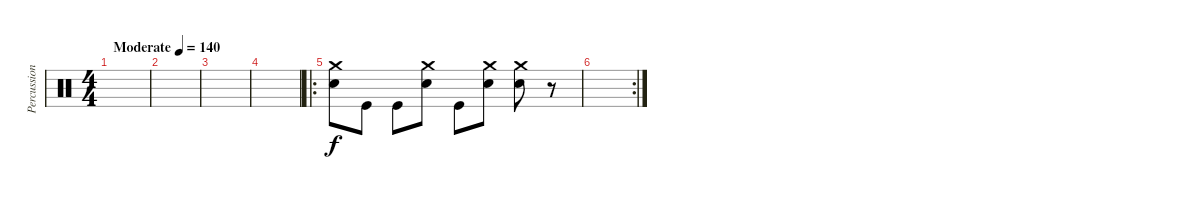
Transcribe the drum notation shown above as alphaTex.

\track ("Percussion" "Percussion") {instrument percussion}
\staff {score}
\articulation defaults
\ts (4 4)
\tempo (140 "Moderate")
\clef neutral
\ks c
|
|
|
|
\ro
("Crash medium (hit)" "Snare (hit) 2").8 "Kick (hit)".8 "Kick (hit)".8 ("Crash medium (hit)" "Snare (hit) 2").8 "Kick (hit)".8 ("Crash medium (hit)" "Snare (hit) 2").8 ("Crash medium (hit)" "Snare (hit) 2").8 r.8 |
\rc 2
